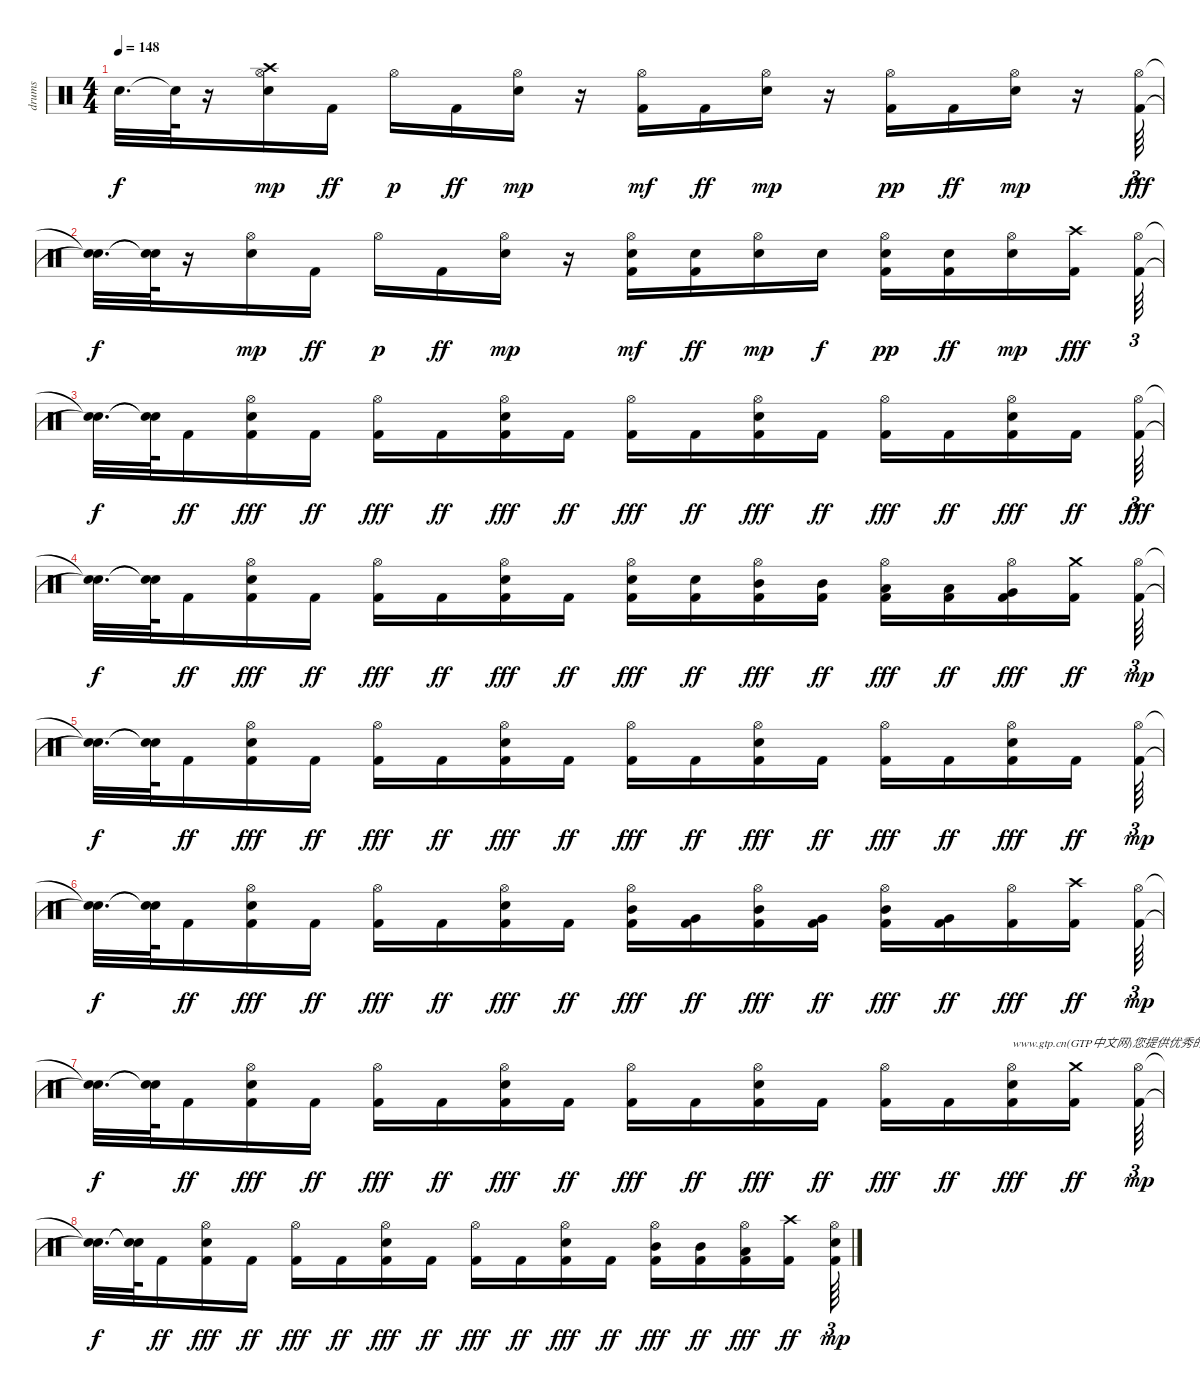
\track ("drums" "drums") {instrument percussion}
\staff {score}
\articulation defaults
\ts (4 4)
\tempo 148
\clef neutral
\ks c "Snare (hit)"{t}.32{d dy f} "Snare (hit)"{t}.64
r.16 ("Crash high (hit)" "Hi-Hat (open)" "Electric Snare (hit)").16{dy mp} "Kick (hit) 2".16{dy ff} "Hi-Hat (open)".16{dy p} "Kick (hit) 2".16{dy ff} ("Hi-Hat (open)" "Electric Snare (hit)").16{dy mp} r.16 ("Hi-Hat (open)" "Kick (hit) 2").16{dy mf} "Kick (hit) 2".16{dy ff} ("Hi-Hat (open)" "Electric Snare (hit)").16{dy mp} r.16 ("Hi-Hat (open)" "Kick (hit) 2").16{dy pp} "Kick (hit) 2".16{dy ff} ("Hi-Hat (open)" "Electric Snare (hit)").16{dy mp} r.16 ("Hi-Hat (open)" "Kick (hit) 2").64{tu (3 2) dy fff} |
("Snare (hit)"{t} "Snare (hit)"{t}).32{d dy f} ("Snare (hit)"{t} "Snare (hit)"{t}).64 r.16 ("Hi-Hat (open)" "Electric Snare (hit)").16{dy mp} "Kick (hit) 2".16{dy ff} "Hi-Hat (open)".16{dy p} "Kick (hit) 2".16{dy ff} ("Hi-Hat (open)" "Electric Snare (hit)").16{dy mp} r.16 ("Hi-Hat (open)" "Electric Snare (hit)" "Kick (hit) 2").16{dy mf} ("Electric Snare (hit)" "Kick (hit) 2").16{dy ff} ("Hi-Hat (open)" "Electric Snare (hit)").16{dy mp} "Electric Snare (hit)".16{dy f} ("Hi-Hat (open)" "Electric Snare (hit)" "Kick (hit) 2").16{dy pp} ("Electric Snare (hit)" "Kick (hit) 2").16{dy ff} ("Hi-Hat (open)" "Electric Snare (hit)").16{dy mp} ("Crash high (hit)" "Kick (hit) 2").16{dy fff} ("Hi-Hat (open)" "Kick (hit) 2").64{tu (3 2)} |
("Snare (hit)"{t} "Snare (hit)"{t}).32{d dy f} ("Snare (hit)"{t} "Snare (hit)"{t}).64 "Kick (hit) 2".16{dy ff} ("Hi-Hat (open)" "Electric Snare (hit)" "Kick (hit) 2").16{dy fff} "Kick (hit) 2".16{dy ff} ("Hi-Hat (open)" "Kick (hit) 2").16{dy fff} "Kick (hit) 2".16{dy ff} ("Hi-Hat (open)" "Electric Snare (hit)" "Kick (hit) 2").16{dy fff} "Kick (hit) 2".16{dy ff} ("Hi-Hat (open)" "Kick (hit) 2").16{dy fff} "Kick (hit) 2".16{dy ff} ("Hi-Hat (open)" "Electric Snare (hit)" "Kick (hit) 2").16{dy fff} "Kick (hit) 2".16{dy ff} ("Hi-Hat (open)" "Kick (hit) 2").16{dy fff} "Kick (hit) 2".16{dy ff} ("Hi-Hat (open)" "Electric Snare (hit)" "Kick (hit) 2").16{dy fff} "Kick (hit) 2".16{dy ff} ("Hi-Hat (open)" "Kick (hit) 2").64{tu (3 2) dy fff} |
("Snare (hit)"{t} "Snare (hit)"{t}).32{d dy f} ("Snare (hit)"{t} "Snare (hit)"{t}).64 "Kick (hit) 2".16{dy ff} ("Hi-Hat (open)" "Electric Snare (hit)" "Kick (hit) 2").16{dy fff} "Kick (hit) 2".16{dy ff} ("Hi-Hat (open)" "Kick (hit) 2").16{dy fff} "Kick (hit) 2".16{dy ff} ("Hi-Hat (open)" "Electric Snare (hit)" "Kick (hit) 2").16{dy fff} "Kick (hit) 2".16{dy ff} ("Hi-Hat (open)" "Electric Snare (hit)" "Kick (hit) 2").16{dy fff} ("Electric Snare (hit)" "Kick (hit) 2").16{dy ff} ("Mid Tom (hit)" "Hi-Hat (open)" "Kick (hit) 2").16{dy fff} ("Mid Tom (hit)" "Kick (hit) 2").16{dy ff} ("Low Tom (hit)" "Hi-Hat (open)" "Kick (hit) 2").16{dy fff} ("Low Tom (hit)" "Kick (hit) 2").16{dy ff} ("Very Low Tom (hit)" "Hi-Hat (open)" "Kick (hit) 2").16{dy fff} ("Kick (hit) 2" "Crash medium (hit)").16{dy ff} ("Kick (hit) 2" "Hi-Hat (open)").64{tu (3 2) dy mp} |
("Snare (hit)"{t} "Snare (hit)"{t}).32{d dy f} ("Snare (hit)"{t} "Snare (hit)"{t}).64 "Kick (hit) 2".16{dy ff} ("Hi-Hat (open)" "Kick (hit) 2" "Electric Snare (hit)").16{dy fff} "Kick (hit) 2".16{dy ff} ("Hi-Hat (open)" "Kick (hit) 2").16{dy fff} "Kick (hit) 2".16{dy ff} ("Hi-Hat (open)" "Kick (hit) 2" "Electric Snare (hit)").16{dy fff} "Kick (hit) 2".16{dy ff} ("Hi-Hat (open)" "Kick (hit) 2").16{dy fff} "Kick (hit) 2".16{dy ff} ("Hi-Hat (open)" "Kick (hit) 2" "Electric Snare (hit)").16{dy fff} "Kick (hit) 2".16{dy ff} ("Hi-Hat (open)" "Kick (hit) 2").16{dy fff} "Kick (hit) 2".16{dy ff} ("Hi-Hat (open)" "Kick (hit) 2" "Electric Snare (hit)").16{dy fff} "Kick (hit) 2".16{dy ff} ("Kick (hit) 2" "Hi-Hat (open)").64{tu (3 2) dy mp} |
("Snare (hit)"{t} "Snare (hit)"{t}).32{d dy f} ("Snare (hit)"{t} "Snare (hit)"{t}).64 "Kick (hit) 2".16{dy ff} ("Hi-Hat (open)" "Kick (hit) 2" "Electric Snare (hit)").16{dy fff} "Kick (hit) 2".16{dy ff} ("Hi-Hat (open)" "Kick (hit) 2").16{dy fff} "Kick (hit) 2".16{dy ff} ("Hi-Hat (open)" "Kick (hit) 2" "Electric Snare (hit)").16{dy fff} "Kick (hit) 2".16{dy ff} ("Hi-Hat (open)" "Mid Tom (hit)" "Kick (hit) 2").16{dy fff} ("Very Low Tom (hit)" "Kick (hit) 2").16{dy ff} ("Hi-Hat (open)" "Mid Tom (hit)" "Kick (hit) 2").16{dy fff} ("Very Low Tom (hit)" "Kick (hit) 2").16{dy ff} ("Hi-Hat (open)" "Mid Tom (hit)" "Kick (hit) 2").16{dy fff} ("Very Low Tom (hit)" "Kick (hit) 2").16{dy ff} ("Hi-Hat (open)" "Kick (hit) 2").16{dy fff} ("Crash high (hit)" "Kick (hit) 2").16{dy ff} ("Kick (hit) 2" "Hi-Hat (open)").64{tu (3 2) dy mp} |
("Snare (hit)"{t} "Snare (hit)"{t}).32{d dy f} ("Snare (hit)"{t} "Snare (hit)"{t}).64 "Kick (hit) 2".16{dy ff} ("Hi-Hat (open)" "Kick (hit) 2" "Electric Snare (hit)").16{dy fff} "Kick (hit) 2".16{dy ff} ("Hi-Hat (open)" "Kick (hit) 2").16{dy fff} "Kick (hit) 2".16{dy ff} ("Hi-Hat (open)" "Kick (hit) 2" "Electric Snare (hit)").16{dy fff} "Kick (hit) 2".16{dy ff} ("Hi-Hat (open)" "Kick (hit) 2").16{dy fff} "Kick (hit) 2".16{dy ff} ("Hi-Hat (open)" "Kick (hit) 2" "Electric Snare (hit)").16{dy fff} "Kick (hit) 2".16{dy ff} ("Hi-Hat (open)" "Kick (hit) 2").16{dy fff} "Kick (hit) 2".16{dy ff} ("Hi-Hat (open)" "Kick (hit) 2" "Electric Snare (hit)").16{txt "www.gtp.cn(GTP中文网)您提供优秀的GTP" dy fff} ("Crash medium (hit)" "Kick (hit) 2").16{dy ff} ("Kick (hit) 2" "Hi-Hat (open)").64{tu (3 2) dy mp} |
("Snare (hit)"{t} "Snare (hit)"{t}).32{d dy f} ("Snare (hit)"{t} "Snare (hit)"{t}).64 "Kick (hit) 2".16{dy ff} ("Hi-Hat (open)" "Kick (hit) 2" "Electric Snare (hit)").16{dy fff} "Kick (hit) 2".16{dy ff} ("Hi-Hat (open)" "Kick (hit) 2").16{dy fff} "Kick (hit) 2".16{dy ff} ("Hi-Hat (open)" "Kick (hit) 2" "Electric Snare (hit)").16{dy fff} "Kick (hit) 2".16{dy ff} ("Hi-Hat (open)" "Kick (hit) 2").16{dy fff} "Kick (hit) 2".16{dy ff} ("Hi-Hat (open)" "Kick (hit) 2" "Electric Snare (hit)").16{dy fff} "Kick (hit) 2".16{dy ff} ("Hi-Hat (open)" "Mid Tom (hit)" "Kick (hit) 2").16{dy fff} ("Mid Tom (hit)" "Kick (hit) 2").16{dy ff} ("Hi-Hat (open)" "Low Tom (hit)" "Kick (hit) 2").16{dy fff} ("Crash high (hit)" "Kick (hit) 2").16{dy ff} ("Kick (hit) 2" "Electric Snare (hit)" "Hi-Hat (open)").64{tu (3 2) dy mp}
